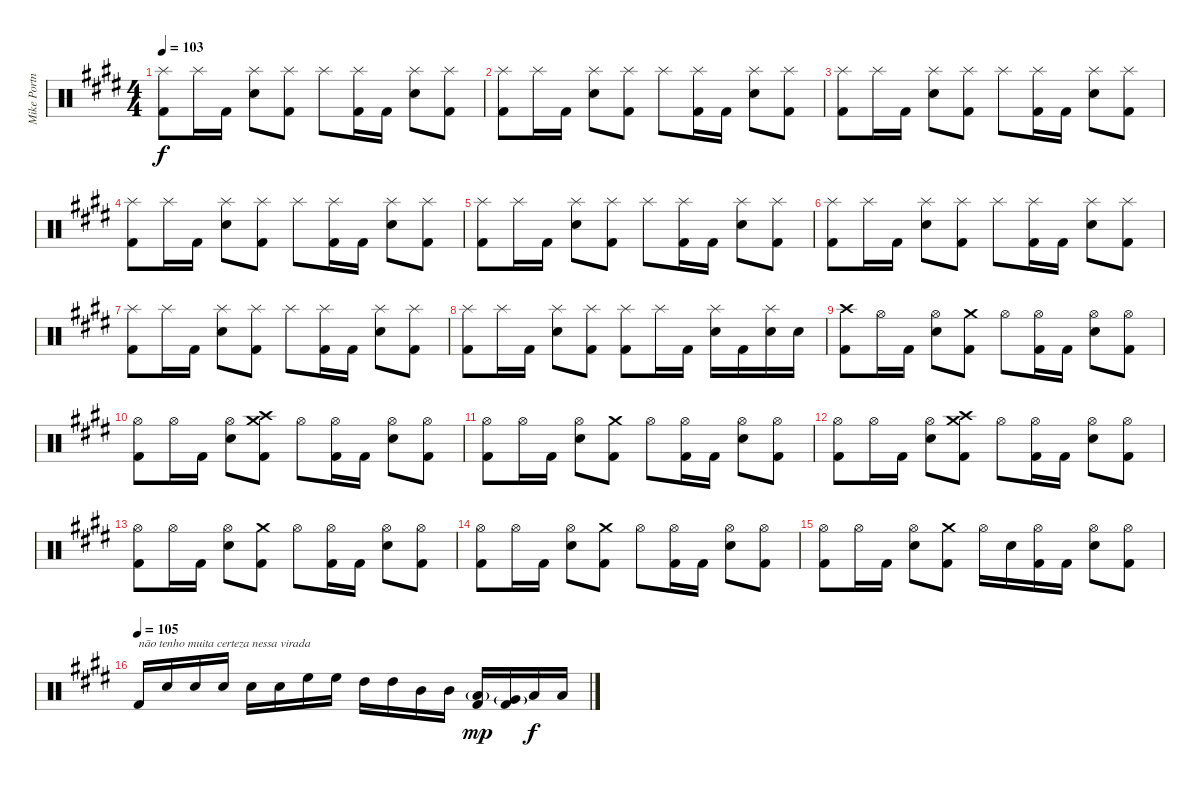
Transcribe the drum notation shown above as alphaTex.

\track ("Mike Portnoy" "Mike Portn") {instrument percussion}
\staff {score}
\articulation defaults
\ts (4 4)
\tempo 103
\clef neutral
\ks e
("Splash (hit)" "Kick (hit) 2").8{dy f volume 14} "Splash (hit)".16 "Kick (hit) 2".16 ("Splash (hit)" "Snare (hit) 2").8 ("Splash (hit)" "Kick (hit) 2").8 "Splash (hit)".8 ("Splash (hit)" "Kick (hit) 2").16 "Kick (hit) 2".16 ("Splash (hit)" "Snare (hit) 2").8 ("Splash (hit)" "Kick (hit) 2").8 |
("Splash (hit)" "Kick (hit) 2").8 "Splash (hit)".16 "Kick (hit) 2".16 ("Splash (hit)" "Snare (hit) 2").8 ("Splash (hit)" "Kick (hit) 2").8 "Splash (hit)".8 ("Splash (hit)" "Kick (hit) 2").16 "Kick (hit) 2".16 ("Splash (hit)" "Snare (hit) 2").8 ("Splash (hit)" "Kick (hit) 2").8 |
("Splash (hit)" "Kick (hit) 2").8 "Splash (hit)".16 "Kick (hit) 2".16 ("Splash (hit)" "Snare (hit) 2").8 ("Splash (hit)" "Kick (hit) 2").8 "Splash (hit)".8 ("Splash (hit)" "Kick (hit) 2").16 "Kick (hit) 2".16 ("Splash (hit)" "Snare (hit) 2").8 ("Splash (hit)" "Kick (hit) 2").8 |
("Splash (hit)" "Kick (hit) 2").8 "Splash (hit)".16 "Kick (hit) 2".16 ("Splash (hit)" "Snare (hit) 2").8 ("Splash (hit)" "Kick (hit) 2").8 "Splash (hit)".8 ("Splash (hit)" "Kick (hit) 2").16 "Kick (hit) 2".16 ("Splash (hit)" "Snare (hit) 2").8 ("Splash (hit)" "Kick (hit) 2").8 |
("Splash (hit)" "Kick (hit) 2").8 "Splash (hit)".16 "Kick (hit) 2".16 ("Splash (hit)" "Snare (hit) 2").8 ("Splash (hit)" "Kick (hit) 2").8 "Splash (hit)".8 ("Splash (hit)" "Kick (hit) 2").16 "Kick (hit) 2".16 ("Splash (hit)" "Snare (hit) 2").8 ("Splash (hit)" "Kick (hit) 2").8 |
("Splash (hit)" "Kick (hit) 2").8 "Splash (hit)".16 "Kick (hit) 2".16 ("Splash (hit)" "Snare (hit) 2").8 ("Splash (hit)" "Kick (hit) 2").8 "Splash (hit)".8 ("Splash (hit)" "Kick (hit) 2").16 "Kick (hit) 2".16 ("Splash (hit)" "Snare (hit) 2").8 ("Splash (hit)" "Kick (hit) 2").8 |
("Splash (hit)" "Kick (hit) 2").8 "Splash (hit)".16 "Kick (hit) 2".16 ("Splash (hit)" "Snare (hit) 2").8 ("Splash (hit)" "Kick (hit) 2").8 "Splash (hit)".8 ("Splash (hit)" "Kick (hit) 2").16 "Kick (hit) 2".16 ("Splash (hit)" "Snare (hit) 2").8 ("Splash (hit)" "Kick (hit) 2").8 |
("Splash (hit)" "Kick (hit) 2").8 "Splash (hit)".16 "Kick (hit) 2".16 ("Splash (hit)" "Snare (hit) 2").8 ("Splash (hit)" "Kick (hit) 2").8 ("Splash (hit)" "Kick (hit) 2").8 "Splash (hit)".16 "Kick (hit) 2".16 ("Splash (hit)" "Snare (hit) 2").16 "Kick (hit) 2".16 ("Splash (hit)" "Snare (hit) 2").16 "Snare (hit) 2".16 |
("Crash high (hit)" "Kick (hit) 2").8 "Hi-Hat (open)".16 "Kick (hit) 2".16 ("Hi-Hat (open)" "Snare (hit) 2").8 ("Crash medium (hit)" "Kick (hit) 2").8 "Hi-Hat (open)".8 ("Hi-Hat (open)" "Kick (hit) 2").16 "Kick (hit) 2".16 ("Hi-Hat (open)" "Snare (hit) 2").8 ("Hi-Hat (open)" "Kick (hit) 2").8 |
("Hi-Hat (open)" "Kick (hit) 2").8 "Hi-Hat (open)".16 "Kick (hit) 2".16 ("Hi-Hat (open)" "Snare (hit) 2").8 ("Crash high (hit)" "Crash medium (hit)" "Kick (hit) 2").8 "Hi-Hat (open)".8 ("Hi-Hat (open)" "Kick (hit) 2").16 "Kick (hit) 2".16 ("Hi-Hat (open)" "Snare (hit) 2").8 ("Hi-Hat (open)" "Kick (hit) 2").8 |
("Hi-Hat (open)" "Kick (hit) 2").8 "Hi-Hat (open)".16 "Kick (hit) 2".16 ("Hi-Hat (open)" "Snare (hit) 2").8 ("Crash medium (hit)" "Kick (hit) 2").8 "Hi-Hat (open)".8 ("Hi-Hat (open)" "Kick (hit) 2").16 "Kick (hit) 2".16 ("Hi-Hat (open)" "Snare (hit) 2").8 ("Hi-Hat (open)" "Kick (hit) 2").8 |
("Hi-Hat (open)" "Kick (hit) 2").8 "Hi-Hat (open)".16 "Kick (hit) 2".16 ("Hi-Hat (open)" "Snare (hit) 2").8 ("Crash high (hit)" "Crash medium (hit)" "Kick (hit) 2").8 "Hi-Hat (open)".8 ("Hi-Hat (open)" "Kick (hit) 2").16 "Kick (hit) 2".16 ("Hi-Hat (open)" "Snare (hit) 2").8 ("Hi-Hat (open)" "Kick (hit) 2").8 |
("Hi-Hat (open)" "Kick (hit) 2").8 "Hi-Hat (open)".16 "Kick (hit) 2".16 ("Hi-Hat (open)" "Snare (hit) 2").8 ("Crash medium (hit)" "Kick (hit) 2").8 "Hi-Hat (open)".8 ("Hi-Hat (open)" "Kick (hit) 2").16 "Kick (hit) 2".16 ("Hi-Hat (open)" "Snare (hit) 2").8 ("Hi-Hat (open)" "Kick (hit) 2").8 |
("Hi-Hat (open)" "Kick (hit) 2").8 "Hi-Hat (open)".16 "Kick (hit) 2".16 ("Hi-Hat (open)" "Snare (hit) 2").8 ("Crash medium (hit)" "Kick (hit) 2").8 "Hi-Hat (open)".8 ("Hi-Hat (open)" "Kick (hit) 2").16 "Kick (hit) 2".16 ("Hi-Hat (open)" "Snare (hit) 2").8 ("Hi-Hat (open)" "Kick (hit) 2").8 |
("Hi-Hat (open)" "Kick (hit) 2").8 "Hi-Hat (open)".16 "Kick (hit) 2".16 ("Hi-Hat (open)" "Snare (hit) 2").8 ("Crash medium (hit)" "Kick (hit) 2").8 "Hi-Hat (open)".16 "Snare (hit) 2".16 ("Hi-Hat (open)" "Kick (hit) 2").16 "Kick (hit) 2".16 ("Hi-Hat (open)" "Snare (hit) 2").8 ("Hi-Hat (open)" "Kick (hit) 2").8 |
\tempo (105)
"Kick (hit) 2".16{txt "não tenho muita certeza nessa virada"} "Snare (hit) 2".16 "Snare (hit) 2".16 "Snare (hit) 2".16 "Snare (hit) 2".16 "Snare (hit) 2".16 "High Floor Tom (hit)".16 "High Floor Tom (hit)".16 "High Tom (hit)".16 "High Tom (hit)".16 "Mid Tom (hit)".16 "Mid Tom (hit)".16 ("Low Tom (hit)"{g} "Kick (hit) 2").16{dy mp} ("Very Low Tom (hit)"{g} "Kick (hit) 2").16 "Low Floor Tom (hit)".16{dy f} "Low Floor Tom (hit)".16
